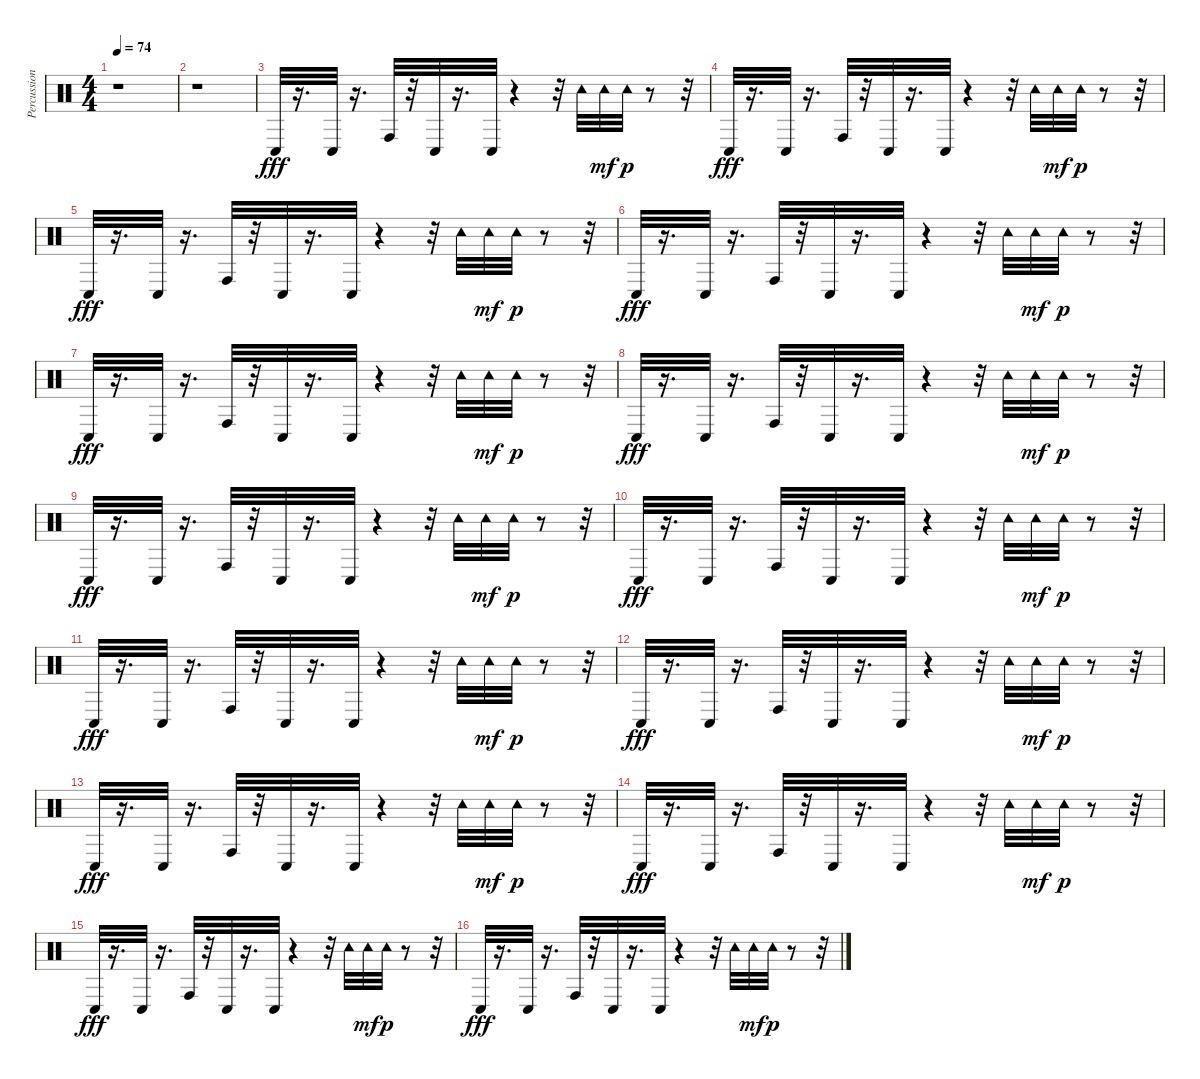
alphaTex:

\track ("Percussion" "Percussion") {instrument percussion}
\staff {score}
\articulation defaults
\ts (4 4)
\tempo 74
\clef neutral
\ks c
r.1{dy p} |
r.1 |
"Conga low (hit)".32{dy fff} r.16{d} "Conga low (hit)".32 r.16{d} "Conga high (hit)".32 r.32 "Conga low (hit)".32 r.16{d} "Conga low (hit)".32 r.4 r.32 "Tambourine (hit)".32 "Tambourine (hit)".32{dy mf} "Tambourine (hit)".32{dy p} r.8 r.32 |
"Conga low (hit)".32{dy fff} r.16{d} "Conga low (hit)".32 r.16{d} "Conga high (hit)".32 r.32 "Conga low (hit)".32 r.16{d} "Conga low (hit)".32 r.4 r.32 "Tambourine (hit)".32 "Tambourine (hit)".32{dy mf} "Tambourine (hit)".32{dy p} r.8 r.32 |
"Conga low (hit)".32{dy fff} r.16{d} "Conga low (hit)".32 r.16{d} "Conga high (hit)".32 r.32 "Conga low (hit)".32 r.16{d} "Conga low (hit)".32 r.4 r.32 "Tambourine (hit)".32 "Tambourine (hit)".32{dy mf} "Tambourine (hit)".32{dy p} r.8 r.32 |
"Conga low (hit)".32{dy fff} r.16{d} "Conga low (hit)".32 r.16{d} "Conga high (hit)".32 r.32 "Conga low (hit)".32 r.16{d} "Conga low (hit)".32 r.4 r.32 "Tambourine (hit)".32 "Tambourine (hit)".32{dy mf} "Tambourine (hit)".32{dy p} r.8 r.32 |
"Conga low (hit)".32{dy fff} r.16{d} "Conga low (hit)".32 r.16{d} "Conga high (hit)".32 r.32 "Conga low (hit)".32 r.16{d} "Conga low (hit)".32 r.4 r.32 "Tambourine (hit)".32 "Tambourine (hit)".32{dy mf} "Tambourine (hit)".32{dy p} r.8 r.32 |
"Conga low (hit)".32{dy fff} r.16{d} "Conga low (hit)".32 r.16{d} "Conga high (hit)".32 r.32 "Conga low (hit)".32 r.16{d} "Conga low (hit)".32 r.4 r.32 "Tambourine (hit)".32 "Tambourine (hit)".32{dy mf} "Tambourine (hit)".32{dy p} r.8 r.32 |
"Conga low (hit)".32{dy fff} r.16{d} "Conga low (hit)".32 r.16{d} "Conga high (hit)".32 r.32 "Conga low (hit)".32 r.16{d} "Conga low (hit)".32 r.4 r.32 "Tambourine (hit)".32 "Tambourine (hit)".32{dy mf} "Tambourine (hit)".32{dy p} r.8 r.32 |
"Conga low (hit)".32{dy fff} r.16{d} "Conga low (hit)".32 r.16{d} "Conga high (hit)".32 r.32 "Conga low (hit)".32 r.16{d} "Conga low (hit)".32 r.4 r.32 "Tambourine (hit)".32 "Tambourine (hit)".32{dy mf} "Tambourine (hit)".32{dy p} r.8 r.32 |
"Conga low (hit)".32{dy fff} r.16{d} "Conga low (hit)".32 r.16{d} "Conga high (hit)".32 r.32 "Conga low (hit)".32 r.16{d} "Conga low (hit)".32 r.4 r.32 "Tambourine (hit)".32 "Tambourine (hit)".32{dy mf} "Tambourine (hit)".32{dy p} r.8 r.32 |
"Conga low (hit)".32{dy fff} r.16{d} "Conga low (hit)".32 r.16{d} "Conga high (hit)".32 r.32 "Conga low (hit)".32 r.16{d} "Conga low (hit)".32 r.4 r.32 "Tambourine (hit)".32 "Tambourine (hit)".32{dy mf} "Tambourine (hit)".32{dy p} r.8 r.32 |
"Conga low (hit)".32{dy fff} r.16{d} "Conga low (hit)".32 r.16{d} "Conga high (hit)".32 r.32 "Conga low (hit)".32 r.16{d} "Conga low (hit)".32 r.4 r.32 "Tambourine (hit)".32 "Tambourine (hit)".32{dy mf} "Tambourine (hit)".32{dy p} r.8 r.32 |
"Conga low (hit)".32{dy fff} r.16{d} "Conga low (hit)".32 r.16{d} "Conga high (hit)".32 r.32 "Conga low (hit)".32 r.16{d} "Conga low (hit)".32 r.4 r.32 "Tambourine (hit)".32 "Tambourine (hit)".32{dy mf} "Tambourine (hit)".32{dy p} r.8 r.32 |
"Conga low (hit)".32{dy fff} r.16{d} "Conga low (hit)".32 r.16{d} "Conga high (hit)".32 r.32 "Conga low (hit)".32 r.16{d} "Conga low (hit)".32 r.4 r.32 "Tambourine (hit)".32 "Tambourine (hit)".32{dy mf} "Tambourine (hit)".32{dy p} r.8 r.32 |
"Conga low (hit)".32{dy fff} r.16{d} "Conga low (hit)".32 r.16{d} "Conga high (hit)".32 r.32 "Conga low (hit)".32 r.16{d} "Conga low (hit)".32 r.4 r.32 "Tambourine (hit)".32 "Tambourine (hit)".32{dy mf} "Tambourine (hit)".32{dy p} r.8 r.32
